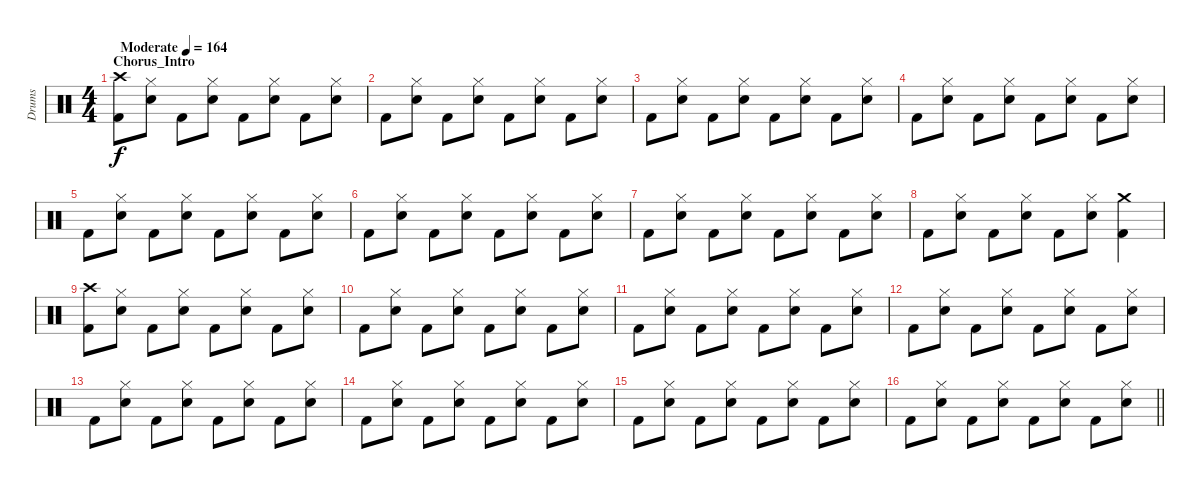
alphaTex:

\track ("Drums" "Drums") {instrument percussion}
\staff {score}
\articulation defaults
\ts (4 4)
\section ("" "Chorus_Intro")
\tempo (164 "Moderate")
\clef neutral
\ks c
("Crash high (hit)" "Kick (hit) 2").8{dy f} ("Hi-Hat (closed)" "Electric Snare (hit)").8 "Kick (hit) 2".8 ("Hi-Hat (closed)" "Electric Snare (hit)").8 "Kick (hit) 2".8 ("Hi-Hat (closed)" "Electric Snare (hit)").8 "Kick (hit) 2".8 ("Hi-Hat (closed)" "Electric Snare (hit)").8 |
"Kick (hit) 2".8 ("Hi-Hat (closed)" "Electric Snare (hit)").8 "Kick (hit) 2".8 ("Hi-Hat (closed)" "Electric Snare (hit)").8 "Kick (hit) 2".8 ("Hi-Hat (closed)" "Electric Snare (hit)").8 "Kick (hit) 2".8 ("Hi-Hat (closed)" "Electric Snare (hit)").8 |
"Kick (hit) 2".8 ("Hi-Hat (closed)" "Electric Snare (hit)").8 "Kick (hit) 2".8 ("Hi-Hat (closed)" "Electric Snare (hit)").8 "Kick (hit) 2".8 ("Hi-Hat (closed)" "Electric Snare (hit)").8 "Kick (hit) 2".8 ("Hi-Hat (closed)" "Electric Snare (hit)").8 |
"Kick (hit) 2".8 ("Hi-Hat (closed)" "Electric Snare (hit)").8 "Kick (hit) 2".8 ("Hi-Hat (closed)" "Electric Snare (hit)").8 "Kick (hit) 2".8 ("Hi-Hat (closed)" "Electric Snare (hit)").8 "Kick (hit) 2".8 ("Hi-Hat (closed)" "Electric Snare (hit)").8 |
"Kick (hit) 2".8 ("Hi-Hat (closed)" "Electric Snare (hit)").8 "Kick (hit) 2".8 ("Hi-Hat (closed)" "Electric Snare (hit)").8 "Kick (hit) 2".8 ("Hi-Hat (closed)" "Electric Snare (hit)").8 "Kick (hit) 2".8 ("Hi-Hat (closed)" "Electric Snare (hit)").8 |
"Kick (hit) 2".8 ("Hi-Hat (closed)" "Electric Snare (hit)").8 "Kick (hit) 2".8 ("Hi-Hat (closed)" "Electric Snare (hit)").8 "Kick (hit) 2".8 ("Hi-Hat (closed)" "Electric Snare (hit)").8 "Kick (hit) 2".8 ("Hi-Hat (closed)" "Electric Snare (hit)").8 |
"Kick (hit) 2".8 ("Hi-Hat (closed)" "Electric Snare (hit)").8 "Kick (hit) 2".8 ("Hi-Hat (closed)" "Electric Snare (hit)").8 "Kick (hit) 2".8 ("Hi-Hat (closed)" "Electric Snare (hit)").8 "Kick (hit) 2".8 ("Hi-Hat (closed)" "Electric Snare (hit)").8 |
"Kick (hit) 2".8 ("Hi-Hat (closed)" "Electric Snare (hit)").8 "Kick (hit) 2".8 ("Hi-Hat (closed)" "Electric Snare (hit)").8 "Kick (hit) 2".8 ("Hi-Hat (closed)" "Electric Snare (hit)").8 ("Crash medium (hit)" "Kick (hit) 2").4 |
("Crash high (hit)" "Kick (hit) 2").8 ("Hi-Hat (closed)" "Electric Snare (hit)").8 "Kick (hit) 2".8 ("Hi-Hat (closed)" "Electric Snare (hit)").8 "Kick (hit) 2".8 ("Hi-Hat (closed)" "Electric Snare (hit)").8 "Kick (hit) 2".8 ("Hi-Hat (closed)" "Electric Snare (hit)").8 |
"Kick (hit) 2".8 ("Hi-Hat (closed)" "Electric Snare (hit)").8 "Kick (hit) 2".8 ("Hi-Hat (closed)" "Electric Snare (hit)").8 "Kick (hit) 2".8 ("Hi-Hat (closed)" "Electric Snare (hit)").8 "Kick (hit) 2".8 ("Hi-Hat (closed)" "Electric Snare (hit)").8 |
"Kick (hit) 2".8 ("Hi-Hat (closed)" "Electric Snare (hit)").8 "Kick (hit) 2".8 ("Hi-Hat (closed)" "Electric Snare (hit)").8 "Kick (hit) 2".8 ("Hi-Hat (closed)" "Electric Snare (hit)").8 "Kick (hit) 2".8 ("Hi-Hat (closed)" "Electric Snare (hit)").8 |
"Kick (hit) 2".8 ("Hi-Hat (closed)" "Electric Snare (hit)").8 "Kick (hit) 2".8 ("Hi-Hat (closed)" "Electric Snare (hit)").8 "Kick (hit) 2".8 ("Hi-Hat (closed)" "Electric Snare (hit)").8 "Kick (hit) 2".8 ("Hi-Hat (closed)" "Electric Snare (hit)").8 |
"Kick (hit) 2".8 ("Hi-Hat (closed)" "Electric Snare (hit)").8 "Kick (hit) 2".8 ("Hi-Hat (closed)" "Electric Snare (hit)").8 "Kick (hit) 2".8 ("Hi-Hat (closed)" "Electric Snare (hit)").8 "Kick (hit) 2".8 ("Hi-Hat (closed)" "Electric Snare (hit)").8 |
"Kick (hit) 2".8 ("Hi-Hat (closed)" "Electric Snare (hit)").8 "Kick (hit) 2".8 ("Hi-Hat (closed)" "Electric Snare (hit)").8 "Kick (hit) 2".8 ("Hi-Hat (closed)" "Electric Snare (hit)").8 "Kick (hit) 2".8 ("Hi-Hat (closed)" "Electric Snare (hit)").8 |
"Kick (hit) 2".8 ("Hi-Hat (closed)" "Electric Snare (hit)").8 "Kick (hit) 2".8 ("Hi-Hat (closed)" "Electric Snare (hit)").8 "Kick (hit) 2".8 ("Hi-Hat (closed)" "Electric Snare (hit)").8 "Kick (hit) 2".8 ("Hi-Hat (closed)" "Electric Snare (hit)").8 |
\barLineRight lightlight "Kick (hit) 2".8
("Hi-Hat (closed)" "Electric Snare (hit)").8 "Kick (hit) 2".8 ("Hi-Hat (closed)" "Electric Snare (hit)").8 "Kick (hit) 2".8 ("Hi-Hat (closed)" "Electric Snare (hit)").8 "Kick (hit) 2".8 ("Hi-Hat (closed)" "Electric Snare (hit)").8
